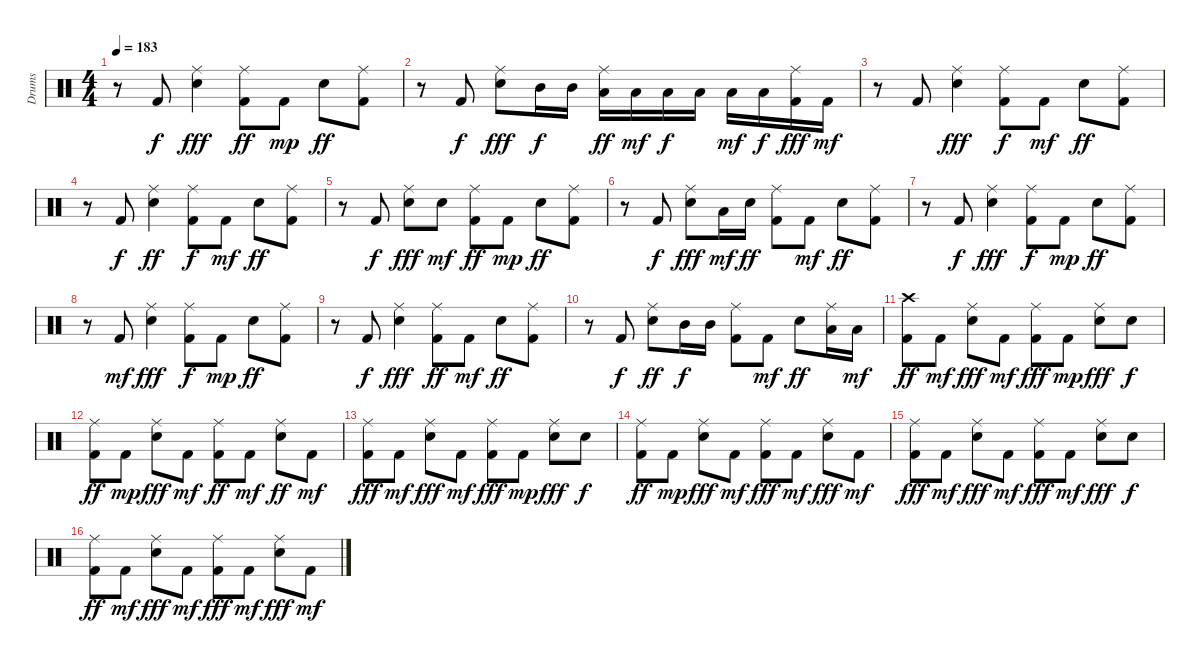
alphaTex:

\track ("Drums" "Drums") {instrument percussion}
\staff {score}
\articulation defaults
\ts (4 4)
\tempo 183
\clef neutral
\ks c
r.8{dy ff} "Kick (hit) 2".8{dy f} ("Snare (hit) 2" "Ride (middle)").4{dy fff} ("Kick (hit) 2" "Ride (middle)").8{dy ff} "Kick (hit) 2".8{dy mp} "Snare (hit) 2".8{dy ff} ("Kick (hit) 2" "Ride (middle)").8 |
r.8 "Kick (hit) 2".8{dy f} ("Snare (hit) 2" "Ride (middle)").8{dy fff} "Mid Tom (hit)".16{dy f} "Mid Tom (hit)".16 ("Low Tom (hit)" "Ride (middle)").16{dy ff} "Low Tom (hit)".16{dy mf} "Low Tom (hit)".16{dy f} "Low Tom (hit)".16 "Low Floor Tom (hit)".16{dy mf} "Low Floor Tom (hit)".16{dy f} ("Kick (hit) 2" "Ride (middle)").16{dy fff} "Kick (hit) 2".16{dy mf} |
r.8 "Kick (hit) 2".8 ("Snare (hit) 2" "Ride (middle)").4{dy fff} ("Kick (hit) 2" "Ride (middle)").8{dy f} "Kick (hit) 2".8{dy mf} "Snare (hit) 2".8{dy ff} ("Kick (hit) 2" "Ride (middle)").8 |
r.8 "Kick (hit) 2".8{dy f} ("Snare (hit) 2" "Ride (middle)").4{dy ff} ("Kick (hit) 2" "Ride (middle)").8{dy f} "Kick (hit) 2".8{dy mf} "Snare (hit) 2".8{dy ff} ("Kick (hit) 2" "Ride (middle)").8 |
r.8 "Kick (hit) 2".8{dy f} ("Snare (hit) 2" "Ride (middle)").8{dy fff} "Snare (hit) 2".8{dy mf} ("Kick (hit) 2" "Ride (middle)").8{dy ff} "Kick (hit) 2".8{dy mp} "Snare (hit) 2".8{dy ff} ("Kick (hit) 2" "Ride (middle)").8 |
r.8 "Kick (hit) 2".8{dy f} ("Snare (hit) 2" "Ride (middle)").8{dy fff} "Low Floor Tom (hit)".16{dy mf} "Snare (hit) 2".16{dy ff} ("Kick (hit) 2" "Ride (middle)").8 "Kick (hit) 2".8{dy mf} "Snare (hit) 2".8{dy ff} ("Kick (hit) 2" "Ride (middle)").8 |
r.8 "Kick (hit) 2".8{dy f} ("Snare (hit) 2" "Ride (middle)").4{dy fff} ("Kick (hit) 2" "Ride (middle)").8{dy f} "Kick (hit) 2".8{dy mp} "Snare (hit) 2".8{dy ff} ("Kick (hit) 2" "Ride (middle)").8 |
r.8 "Kick (hit) 2".8{dy mf} ("Snare (hit) 2" "Ride (middle)").4{dy fff} ("Kick (hit) 2" "Ride (middle)").8{dy f} "Kick (hit) 2".8{dy mp} "Snare (hit) 2".8{dy ff} ("Kick (hit) 2" "Ride (middle)").8 |
r.8 "Kick (hit) 2".8{dy f} ("Snare (hit) 2" "Ride (middle)").4{dy fff} ("Kick (hit) 2" "Ride (middle)").8{dy ff} "Kick (hit) 2".8{dy mf} "Snare (hit) 2".8{dy ff} ("Kick (hit) 2" "Ride (middle)").8 |
r.8 "Kick (hit) 2".8{dy f} ("Snare (hit) 2" "Ride (middle)").8{dy ff} "Mid Tom (hit)".16{dy f} "Mid Tom (hit)".16 ("Kick (hit) 2" "Ride (middle)").8 "Kick (hit) 2".8{dy mf} "Snare (hit) 2".8{dy ff} ("Low Tom (hit)" "Ride (middle)").16 "Low Tom (hit)".16{dy mf} |
("Kick (hit) 2" "Crash high (hit)").8{dy ff} "Kick (hit) 2".8{dy mf} ("Snare (hit) 2" "Ride (middle)").8{dy fff} "Kick (hit) 2".8{dy mf} ("Kick (hit) 2" "Ride (middle)").8{dy fff} "Kick (hit) 2".8{dy mp} ("Snare (hit) 2" "Ride (middle)").8{dy fff} "Snare (hit) 2".8{dy f} |
("Kick (hit) 2" "Ride (middle)").8{dy ff} "Kick (hit) 2".8{dy mp} ("Snare (hit) 2" "Ride (middle)").8{dy fff} "Kick (hit) 2".8{dy mf} ("Kick (hit) 2" "Ride (middle)").8{dy ff} "Kick (hit) 2".8{dy mf} ("Snare (hit) 2" "Ride (middle)").8{dy ff} "Kick (hit) 2".8{dy mf} |
("Kick (hit) 2" "Ride (middle)").8{dy fff} "Kick (hit) 2".8{dy mf} ("Snare (hit) 2" "Ride (middle)").8{dy fff} "Kick (hit) 2".8{dy mf} ("Kick (hit) 2" "Ride (middle)").8{dy fff} "Kick (hit) 2".8{dy mp} ("Snare (hit) 2" "Ride (middle)").8{dy fff} "Snare (hit) 2".8{dy f} |
("Kick (hit) 2" "Ride (middle)").8{dy ff} "Kick (hit) 2".8{dy mp} ("Snare (hit) 2" "Ride (middle)").8{dy fff} "Kick (hit) 2".8{dy mf} ("Kick (hit) 2" "Ride (middle)").8{dy fff} "Kick (hit) 2".8{dy mf} ("Snare (hit) 2" "Ride (middle)").8{dy fff} "Kick (hit) 2".8{dy mf} |
("Kick (hit) 2" "Ride (middle)").8{dy fff} "Kick (hit) 2".8{dy mf} ("Snare (hit) 2" "Ride (middle)").8{dy fff} "Kick (hit) 2".8{dy mf} ("Kick (hit) 2" "Ride (middle)").8{dy fff} "Kick (hit) 2".8{dy mf} ("Snare (hit) 2" "Ride (middle)").8{dy fff} "Snare (hit) 2".8{dy f} |
("Kick (hit) 2" "Ride (middle)").8{dy ff} "Kick (hit) 2".8{dy mf} ("Snare (hit) 2" "Ride (middle)").8{dy fff} "Kick (hit) 2".8{dy mf} ("Kick (hit) 2" "Ride (middle)").8{dy fff} "Kick (hit) 2".8{dy mf} ("Snare (hit) 2" "Ride (middle)").8{dy fff} "Kick (hit) 2".8{dy mf}
